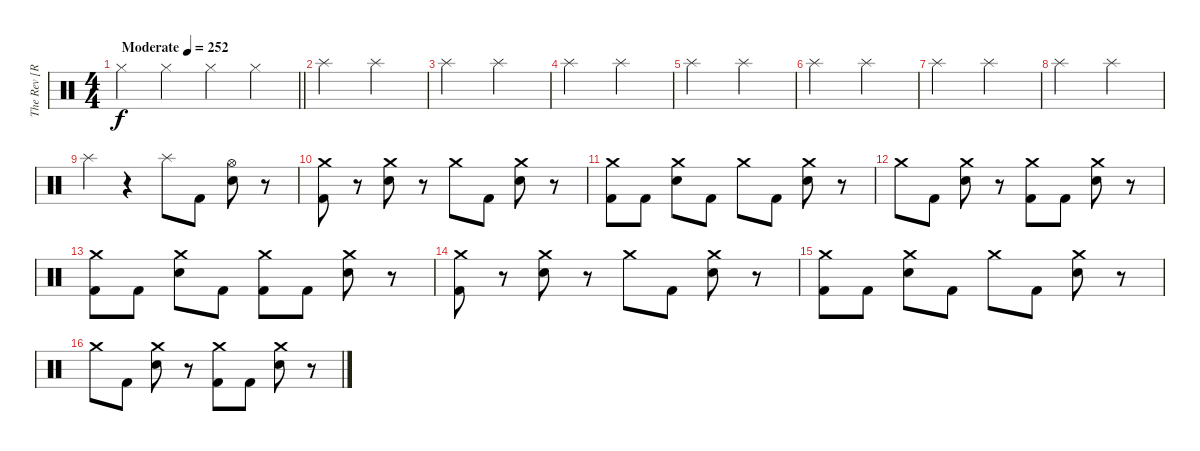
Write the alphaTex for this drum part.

\track ("The Rev [R.I.P]" "The Rev [R") {instrument percussion}
\staff {score}
\articulation defaults
\ts (4 4)
\tempo (252 "Moderate")
\clef neutral
\barLineRight lightlight
\ks c "Hi-Hat (closed)".4{dy f} "Hi-Hat (closed)".4 "Hi-Hat (closed)".4 "Hi-Hat (closed)".4
|
"Splash (hit)".2 "Splash (hit)".2 |
"Splash (hit)".2 "Splash (hit)".2 |
"Splash (hit)".2 "Splash (hit)".2 |
"Splash (hit)".2 "Splash (hit)".2 |
"Splash (hit)".2 "Splash (hit)".2 |
"Splash (hit)".2 "Splash (hit)".2 |
"Splash (hit)".2 "Splash (hit)".2 |
"Splash (hit)".4 r.4 "Splash (hit)".8 "Kick (hit) 2".8 ("Hi-Hat (open)" "Electric Snare (hit)").8 r.8 |
("Crash medium (hit)" "Kick (hit) 2").8 r.8 ("Crash medium (hit)" "Electric Snare (hit)").8 r.8 "Crash medium (hit)".8 "Kick (hit) 2".8 ("Crash medium (hit)" "Electric Snare (hit)").8 r.8 |
("Crash medium (hit)" "Kick (hit) 2").8 "Kick (hit) 2".8 ("Crash medium (hit)" "Electric Snare (hit)").8 "Kick (hit) 2".8 "Crash medium (hit)".8 "Kick (hit) 2".8 ("Crash medium (hit)" "Electric Snare (hit)").8 r.8 |
"Crash medium (hit)".8 "Kick (hit) 2".8 ("Crash medium (hit)" "Electric Snare (hit)").8 r.8 ("Crash medium (hit)" "Kick (hit) 2").8 "Kick (hit) 2".8 ("Crash medium (hit)" "Electric Snare (hit)").8 r.8 |
("Crash medium (hit)" "Kick (hit) 2").8 "Kick (hit) 2".8 ("Crash medium (hit)" "Electric Snare (hit)").8 "Kick (hit) 2".8 ("Crash medium (hit)" "Kick (hit) 2").8 "Kick (hit) 2".8 ("Crash medium (hit)" "Electric Snare (hit)").8 r.8 |
("Crash medium (hit)" "Kick (hit) 2").8 r.8 ("Crash medium (hit)" "Electric Snare (hit)").8 r.8 "Crash medium (hit)".8 "Kick (hit) 2".8 ("Crash medium (hit)" "Electric Snare (hit)").8 r.8 |
("Crash medium (hit)" "Kick (hit) 2").8 "Kick (hit) 2".8 ("Crash medium (hit)" "Electric Snare (hit)").8 "Kick (hit) 2".8 "Crash medium (hit)".8 "Kick (hit) 2".8 ("Crash medium (hit)" "Electric Snare (hit)").8 r.8 |
"Crash medium (hit)".8 "Kick (hit) 2".8 ("Crash medium (hit)" "Electric Snare (hit)").8 r.8 ("Crash medium (hit)" "Kick (hit) 2").8 "Kick (hit) 2".8 ("Crash medium (hit)" "Electric Snare (hit)").8 r.8
